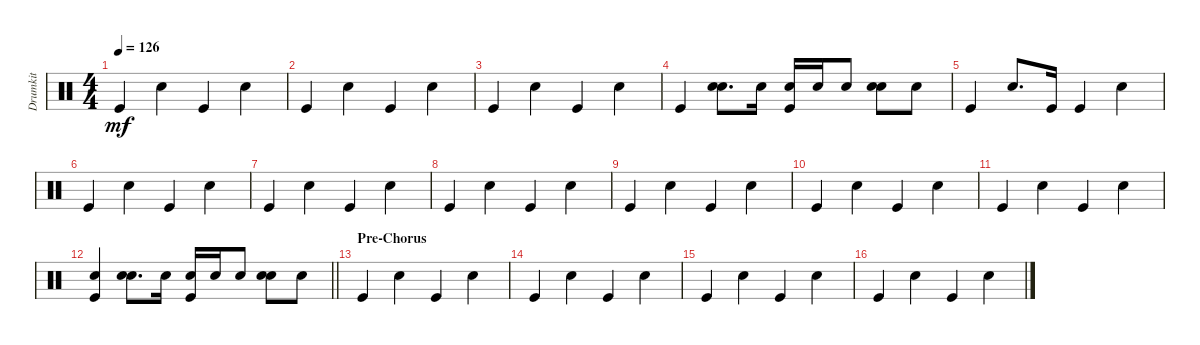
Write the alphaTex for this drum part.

\track ("Drumkit" "Drumkit") {instrument percussion}
\staff {score}
\articulation defaults
\ts (4 4)
\tempo 126
\clef neutral
\ks c "Kick (hit)".4{dy mf} "Snare (hit) 2".4 "Kick (hit)".4 "Snare (hit) 2".4
|
"Kick (hit)".4 "Snare (hit) 2".4 "Kick (hit)".4 "Snare (hit) 2".4 |
"Kick (hit)".4 "Snare (hit) 2".4 "Kick (hit)".4 "Snare (hit) 2".4 |
"Kick (hit)".4 ("Snare (hit) 2" "Snare (hit) 2").8{d} "Snare (hit) 2".16 ("Kick (hit)" "Snare (hit) 2").16 "Snare (hit) 2".16 "Snare (hit) 2".8 ("Snare (hit) 2" "Snare (hit) 2").8 "Snare (hit) 2".8 |
"Kick (hit)".4 "Snare (hit) 2".8{d} "Kick (hit)".16 "Kick (hit)".4 "Snare (hit) 2".4 |
"Kick (hit)".4 "Snare (hit) 2".4 "Kick (hit)".4 "Snare (hit) 2".4 |
"Kick (hit)".4 "Snare (hit) 2".4 "Kick (hit)".4 "Snare (hit) 2".4 |
"Kick (hit)".4 "Snare (hit) 2".4 "Kick (hit)".4 "Snare (hit) 2".4 |
"Kick (hit)".4 "Snare (hit) 2".4 "Kick (hit)".4 "Snare (hit) 2".4 |
"Kick (hit)".4 "Snare (hit) 2".4 "Kick (hit)".4 "Snare (hit) 2".4 |
"Kick (hit)".4 "Snare (hit) 2".4 "Kick (hit)".4 "Snare (hit) 2".4 |
\barLineRight lightlight
("Kick (hit)" "Snare (hit) 2").4 ("Snare (hit) 2" "Snare (hit) 2").8{d} "Snare (hit) 2".16 ("Kick (hit)" "Snare (hit) 2").16 "Snare (hit) 2".16 "Snare (hit) 2".8 ("Snare (hit) 2" "Snare (hit) 2").8 "Snare (hit) 2".8 |
\section ("" "Pre-Chorus ")
"Kick (hit)".4 "Snare (hit) 2".4 "Kick (hit)".4 "Snare (hit) 2".4 |
"Kick (hit)".4 "Snare (hit) 2".4 "Kick (hit)".4 "Snare (hit) 2".4 |
"Kick (hit)".4 "Snare (hit) 2".4 "Kick (hit)".4 "Snare (hit) 2".4 |
"Kick (hit)".4 "Snare (hit) 2".4 "Kick (hit)".4 "Snare (hit) 2".4
